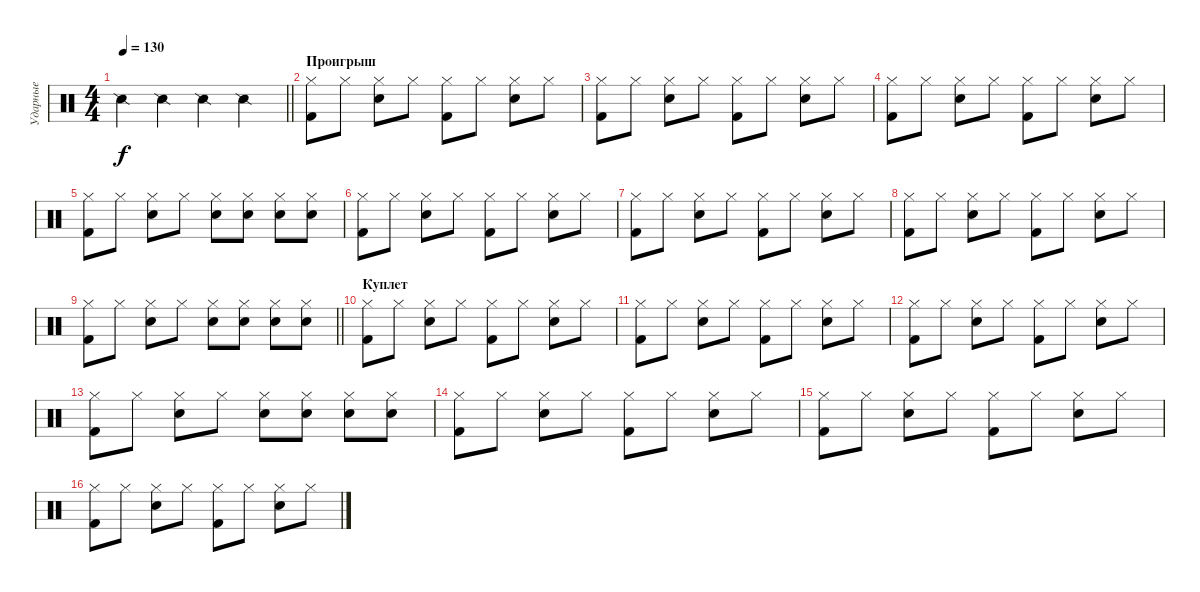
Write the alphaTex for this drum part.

\track ("Ударные" "Ударные") {instrument percussion}
\staff {score}
\articulation defaults
\ts (4 4)
\tempo 130
\clef neutral
\barLineRight lightlight
\ks c "Snare (side stick) 2".4{dy f} "Snare (side stick) 2".4 "Snare (side stick) 2".4 "Snare (side stick) 2".4
|
\section ("" "Проигрыш")
("Hi-Hat (closed)" "Kick (hit) 2").8 "Hi-Hat (closed)".8 ("Hi-Hat (closed)" "Snare (hit) 2").8 "Hi-Hat (closed)".8 ("Hi-Hat (closed)" "Kick (hit) 2").8 "Hi-Hat (closed)".8 ("Hi-Hat (closed)" "Snare (hit) 2").8 "Hi-Hat (closed)".8 |
("Hi-Hat (closed)" "Kick (hit) 2").8 "Hi-Hat (closed)".8 ("Hi-Hat (closed)" "Snare (hit) 2").8 "Hi-Hat (closed)".8 ("Hi-Hat (closed)" "Kick (hit) 2").8 "Hi-Hat (closed)".8 ("Hi-Hat (closed)" "Snare (hit) 2").8 "Hi-Hat (closed)".8 |
("Hi-Hat (closed)" "Kick (hit) 2").8 "Hi-Hat (closed)".8 ("Hi-Hat (closed)" "Snare (hit) 2").8 "Hi-Hat (closed)".8 ("Hi-Hat (closed)" "Kick (hit) 2").8 "Hi-Hat (closed)".8 ("Hi-Hat (closed)" "Snare (hit) 2").8 "Hi-Hat (closed)".8 |
("Hi-Hat (closed)" "Kick (hit) 2").8 "Hi-Hat (closed)".8 ("Hi-Hat (closed)" "Snare (hit) 2").8 "Hi-Hat (closed)".8 ("Hi-Hat (closed)" "Snare (hit) 2").8 ("Hi-Hat (closed)" "Snare (hit) 2").8 ("Hi-Hat (closed)" "Snare (hit) 2").8 ("Hi-Hat (closed)" "Snare (hit) 2").8 |
("Hi-Hat (closed)" "Kick (hit) 2").8 "Hi-Hat (closed)".8 ("Hi-Hat (closed)" "Snare (hit) 2").8 "Hi-Hat (closed)".8 ("Hi-Hat (closed)" "Kick (hit) 2").8 "Hi-Hat (closed)".8 ("Hi-Hat (closed)" "Snare (hit) 2").8 "Hi-Hat (closed)".8 |
("Hi-Hat (closed)" "Kick (hit) 2").8 "Hi-Hat (closed)".8 ("Hi-Hat (closed)" "Snare (hit) 2").8 "Hi-Hat (closed)".8 ("Hi-Hat (closed)" "Kick (hit) 2").8 "Hi-Hat (closed)".8 ("Hi-Hat (closed)" "Snare (hit) 2").8 "Hi-Hat (closed)".8 |
("Hi-Hat (closed)" "Kick (hit) 2").8 "Hi-Hat (closed)".8 ("Hi-Hat (closed)" "Snare (hit) 2").8 "Hi-Hat (closed)".8 ("Hi-Hat (closed)" "Kick (hit) 2").8 "Hi-Hat (closed)".8 ("Hi-Hat (closed)" "Snare (hit) 2").8 "Hi-Hat (closed)".8 |
\barLineRight lightlight
("Hi-Hat (closed)" "Kick (hit) 2").8 "Hi-Hat (closed)".8 ("Hi-Hat (closed)" "Snare (hit) 2").8 "Hi-Hat (closed)".8 ("Hi-Hat (closed)" "Snare (hit) 2").8 ("Hi-Hat (closed)" "Snare (hit) 2").8 ("Hi-Hat (closed)" "Snare (hit) 2").8 ("Hi-Hat (closed)" "Snare (hit) 2").8 |
\section ("" "Куплет")
("Hi-Hat (closed)" "Kick (hit) 2").8 "Hi-Hat (closed)".8 ("Hi-Hat (closed)" "Snare (hit) 2").8 "Hi-Hat (closed)".8 ("Hi-Hat (closed)" "Kick (hit) 2").8 "Hi-Hat (closed)".8 ("Hi-Hat (closed)" "Snare (hit) 2").8 "Hi-Hat (closed)".8 |
("Hi-Hat (closed)" "Kick (hit) 2").8 "Hi-Hat (closed)".8 ("Hi-Hat (closed)" "Snare (hit) 2").8 "Hi-Hat (closed)".8 ("Hi-Hat (closed)" "Kick (hit) 2").8 "Hi-Hat (closed)".8 ("Hi-Hat (closed)" "Snare (hit) 2").8 "Hi-Hat (closed)".8 |
("Hi-Hat (closed)" "Kick (hit) 2").8 "Hi-Hat (closed)".8 ("Hi-Hat (closed)" "Snare (hit) 2").8 "Hi-Hat (closed)".8 ("Hi-Hat (closed)" "Kick (hit) 2").8 "Hi-Hat (closed)".8 ("Hi-Hat (closed)" "Snare (hit) 2").8 "Hi-Hat (closed)".8 |
("Hi-Hat (closed)" "Kick (hit) 2").8 "Hi-Hat (closed)".8 ("Hi-Hat (closed)" "Snare (hit) 2").8 "Hi-Hat (closed)".8 ("Hi-Hat (closed)" "Snare (hit) 2").8 ("Hi-Hat (closed)" "Snare (hit) 2").8 ("Hi-Hat (closed)" "Snare (hit) 2").8 ("Hi-Hat (closed)" "Snare (hit) 2").8 |
("Hi-Hat (closed)" "Kick (hit) 2").8 "Hi-Hat (closed)".8 ("Hi-Hat (closed)" "Snare (hit) 2").8 "Hi-Hat (closed)".8 ("Hi-Hat (closed)" "Kick (hit) 2").8 "Hi-Hat (closed)".8 ("Hi-Hat (closed)" "Snare (hit) 2").8 "Hi-Hat (closed)".8 |
("Hi-Hat (closed)" "Kick (hit) 2").8 "Hi-Hat (closed)".8 ("Hi-Hat (closed)" "Snare (hit) 2").8 "Hi-Hat (closed)".8 ("Hi-Hat (closed)" "Kick (hit) 2").8 "Hi-Hat (closed)".8 ("Hi-Hat (closed)" "Snare (hit) 2").8 "Hi-Hat (closed)".8 |
("Hi-Hat (closed)" "Kick (hit) 2").8 "Hi-Hat (closed)".8 ("Hi-Hat (closed)" "Snare (hit) 2").8 "Hi-Hat (closed)".8 ("Hi-Hat (closed)" "Kick (hit) 2").8 "Hi-Hat (closed)".8 ("Hi-Hat (closed)" "Snare (hit) 2").8 "Hi-Hat (closed)".8
